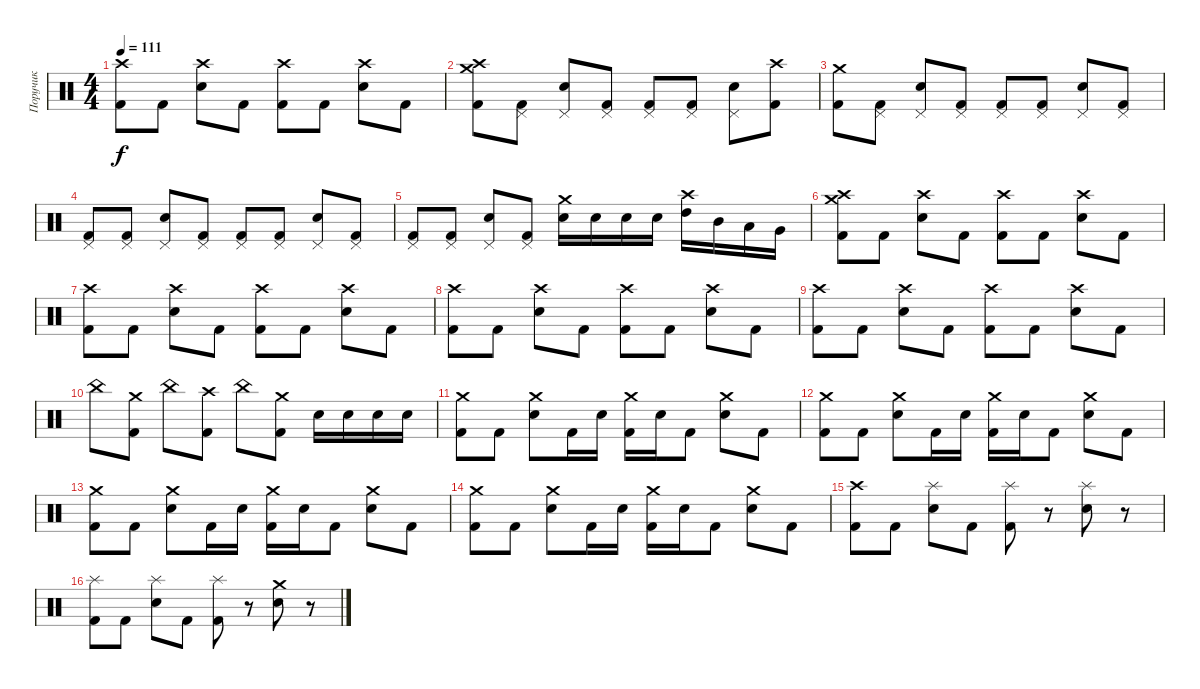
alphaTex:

\track ("Поручик" "Поручик") {instrument percussion}
\staff {score}
\articulation defaults
\ts (4 4)
\tempo 111
\clef neutral
\ks c
("Crash high (hit)" "Kick (hit) 2").8{dy f} "Kick (hit) 2".8 ("Crash high (hit)" "Electric Snare (hit)").8 "Kick (hit) 2".8 ("Crash high (hit)" "Kick (hit) 2").8 "Kick (hit) 2".8 ("Crash high (hit)" "Electric Snare (hit)").8 "Kick (hit) 2".8 |
("Crash medium (hit)" "Crash high (hit)" "Kick (hit) 2").8 ("Pedal Hi-Hat (hit)" "Kick (hit) 2").8 ("Pedal Hi-Hat (hit)" "Electric Snare (hit)").8 ("Pedal Hi-Hat (hit)" "Kick (hit) 2").8 ("Pedal Hi-Hat (hit)" "Kick (hit) 2").8 ("Pedal Hi-Hat (hit)" "Kick (hit) 2").8 ("Pedal Hi-Hat (hit)" "Electric Snare (hit)").8 ("Crash high (hit)" "Kick (hit) 2").8 |
("Crash medium (hit)" "Kick (hit) 2").8 ("Pedal Hi-Hat (hit)" "Kick (hit) 2").8 ("Pedal Hi-Hat (hit)" "Electric Snare (hit)").8 ("Pedal Hi-Hat (hit)" "Kick (hit) 2").8 ("Pedal Hi-Hat (hit)" "Kick (hit) 2").8 ("Pedal Hi-Hat (hit)" "Kick (hit) 2").8 ("Pedal Hi-Hat (hit)" "Electric Snare (hit)").8 ("Pedal Hi-Hat (hit)" "Kick (hit) 2").8 |
("Pedal Hi-Hat (hit)" "Kick (hit) 2").8 ("Pedal Hi-Hat (hit)" "Kick (hit) 2").8 ("Pedal Hi-Hat (hit)" "Electric Snare (hit)").8 ("Pedal Hi-Hat (hit)" "Kick (hit) 2").8 ("Pedal Hi-Hat (hit)" "Kick (hit) 2").8 ("Pedal Hi-Hat (hit)" "Kick (hit) 2").8 ("Pedal Hi-Hat (hit)" "Electric Snare (hit)").8 ("Pedal Hi-Hat (hit)" "Kick (hit) 2").8 |
("Pedal Hi-Hat (hit)" "Kick (hit) 2").8 ("Pedal Hi-Hat (hit)" "Kick (hit) 2").8 ("Pedal Hi-Hat (hit)" "Electric Snare (hit)").8 ("Pedal Hi-Hat (hit)" "Kick (hit) 2").8 ("Crash medium (hit)" "Electric Snare (hit)").16 "Electric Snare (hit)".16 "Electric Snare (hit)".16 "Electric Snare (hit)".16 ("Crash high (hit)" "High Tom (hit)").16 "Mid Tom (hit)".16 "Low Tom (hit)".16 "Very Low Tom (hit)".16 |
("Crash medium (hit)" "Crash high (hit)" "Kick (hit) 2").8 "Kick (hit) 2".8 ("Crash high (hit)" "Electric Snare (hit)").8 "Kick (hit) 2".8 ("Crash high (hit)" "Kick (hit) 2").8 "Kick (hit) 2".8 ("Crash high (hit)" "Electric Snare (hit)").8 "Kick (hit) 2".8 |
("Crash high (hit)" "Kick (hit) 2").8 "Kick (hit) 2".8 ("Crash high (hit)" "Electric Snare (hit)").8 "Kick (hit) 2".8 ("Crash high (hit)" "Kick (hit) 2").8 "Kick (hit) 2".8 ("Crash high (hit)" "Electric Snare (hit)").8 "Kick (hit) 2".8 |
("Crash high (hit)" "Kick (hit) 2").8 "Kick (hit) 2".8 ("Crash high (hit)" "Electric Snare (hit)").8 "Kick (hit) 2".8 ("Crash high (hit)" "Kick (hit) 2").8 "Kick (hit) 2".8 ("Crash high (hit)" "Electric Snare (hit)").8 "Kick (hit) 2".8 |
("Crash high (hit)" "Kick (hit) 2").8 "Kick (hit) 2".8 ("Crash high (hit)" "Electric Snare (hit)").8 "Kick (hit) 2".8 ("Crash high (hit)" "Kick (hit) 2").8 "Kick (hit) 2".8 ("Crash high (hit)" "Electric Snare (hit)").8 "Kick (hit) 2".8 |
"China (hit)".8 ("Crash medium (hit)" "Kick (hit) 2").8 "China (hit)".8 ("Crash high (hit)" "Kick (hit) 2").8 "China (hit)".8 ("Crash medium (hit)" "Kick (hit) 2").8 "Electric Snare (hit)".16 "Electric Snare (hit)".16 "Electric Snare (hit)".16 "Electric Snare (hit)".16 |
("Crash medium (hit)" "Kick (hit) 2").8 "Kick (hit) 2".8 ("Crash medium (hit)" "Electric Snare (hit)").8 "Kick (hit) 2".16 "Electric Snare (hit)".16 ("Crash medium (hit)" "Kick (hit) 2").16 "Electric Snare (hit)".16 "Kick (hit) 2".8 ("Crash medium (hit)" "Electric Snare (hit)").8 "Kick (hit) 2".8 |
("Crash medium (hit)" "Kick (hit) 2").8 "Kick (hit) 2".8 ("Crash medium (hit)" "Electric Snare (hit)").8 "Kick (hit) 2".16 "Electric Snare (hit)".16 ("Crash medium (hit)" "Kick (hit) 2").16 "Electric Snare (hit)".16 "Kick (hit) 2".8 ("Crash medium (hit)" "Electric Snare (hit)").8 "Kick (hit) 2".8 |
("Crash medium (hit)" "Kick (hit) 2").8 "Kick (hit) 2".8 ("Crash medium (hit)" "Electric Snare (hit)").8 "Kick (hit) 2".16 "Electric Snare (hit)".16 ("Crash medium (hit)" "Kick (hit) 2").16 "Electric Snare (hit)".16 "Kick (hit) 2".8 ("Crash medium (hit)" "Electric Snare (hit)").8 "Kick (hit) 2".8 |
("Crash medium (hit)" "Kick (hit) 2").8 "Kick (hit) 2".8 ("Crash medium (hit)" "Electric Snare (hit)").8 "Kick (hit) 2".16 "Electric Snare (hit)".16 ("Crash medium (hit)" "Kick (hit) 2").16 "Electric Snare (hit)".16 "Kick (hit) 2".8 ("Crash medium (hit)" "Electric Snare (hit)").8 "Kick (hit) 2".8 |
("Crash high (hit)" "Kick (hit) 2").8 "Kick (hit) 2".8 ("Splash (hit)" "Electric Snare (hit)").8 "Kick (hit) 2".8 ("Splash (hit)" "Kick (hit) 2").8 r.8 ("Splash (hit)" "Electric Snare (hit)").8 r.8 |
("Splash (hit)" "Kick (hit) 2").8 "Kick (hit) 2".8 ("Splash (hit)" "Electric Snare (hit)").8 "Kick (hit) 2".8 ("Splash (hit)" "Kick (hit) 2").8 r.8 ("Crash medium (hit)" "Electric Snare (hit)").8 r.8
